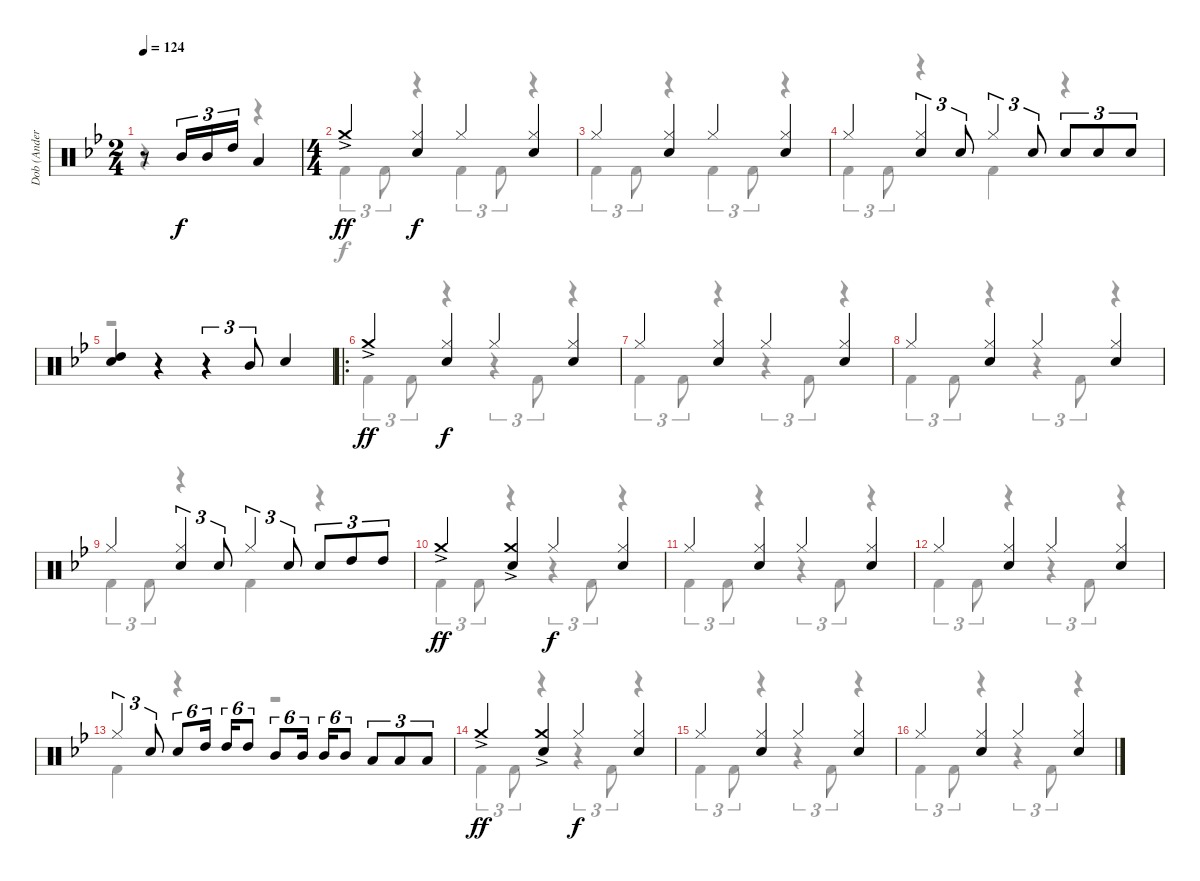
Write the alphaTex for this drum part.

\track ("Dob (Anders Johansson)" "Dob (Ander") {instrument percussion}
\staff {score}
\articulation defaults
\voice
\ts (2 4)
\tempo 124
\clef neutral
\ks bb
r.8{dy f} "Mid Tom (hit)".16{tu (3 2)} "Mid Tom (hit)".16{tu (3 2)} "High Tom (hit)".16{tu (3 2)} "Low Tom (hit)".4 |
\ts (4 4)
"Crash medium (hit)"{ac}.4{dy ff} ("Hi-Hat (closed)" "Electric Snare (hit)").4{dy f} "Hi-Hat (closed)".4 ("Hi-Hat (closed)" "Electric Snare (hit)").4 |
"Hi-Hat (closed)".4 ("Hi-Hat (closed)" "Electric Snare (hit)").4 "Hi-Hat (closed)".4 ("Hi-Hat (closed)" "Electric Snare (hit)").4 |
"Hi-Hat (closed)".4 ("Hi-Hat (closed)" "Electric Snare (hit)").4{tu (3 2)} "Electric Snare (hit)".8{tu (3 2)} "Hi-Hat (closed)".4{tu (3 2)} "Electric Snare (hit)".8{tu (3 2)} "Electric Snare (hit)".8{tu (3 2)} "Electric Snare (hit)".8{tu (3 2)} "Electric Snare (hit)".8{tu (3 2)} |
("High Tom (hit)" "Electric Snare (hit)").4 r.4 r.4{tu (3 2)} "Mid Tom (hit)".8{tu (3 2)} "Electric Snare (hit)".4 |
\ro "Crash medium (hit)"{ac}.4{dy ff}
("Hi-Hat (closed)" "Electric Snare (hit)").4{dy f} "Hi-Hat (closed)".4 ("Hi-Hat (closed)" "Electric Snare (hit)").4 |
"Hi-Hat (closed)".4 ("Hi-Hat (closed)" "Electric Snare (hit)").4 "Hi-Hat (closed)".4 ("Hi-Hat (closed)" "Electric Snare (hit)").4 |
"Hi-Hat (closed)".4 ("Hi-Hat (closed)" "Electric Snare (hit)").4 "Hi-Hat (closed)".4 ("Hi-Hat (closed)" "Electric Snare (hit)").4 |
"Hi-Hat (closed)".4 ("Hi-Hat (closed)" "Electric Snare (hit)").4{tu (3 2)} "Electric Snare (hit)".8{tu (3 2)} "Hi-Hat (closed)".4{tu (3 2)} "Electric Snare (hit)".8{tu (3 2)} "Electric Snare (hit)".8{tu (3 2)} "High Tom (hit)".8{tu (3 2)} "High Tom (hit)".8{tu (3 2)} |
"Crash medium (hit)"{ac}.4{dy ff} ("Crash medium (hit)"{ac} "Electric Snare (hit)").4 "Hi-Hat (closed)".4{dy f} ("Hi-Hat (closed)" "Electric Snare (hit)").4 |
"Hi-Hat (closed)".4 ("Hi-Hat (closed)" "Electric Snare (hit)").4 "Hi-Hat (closed)".4 ("Hi-Hat (closed)" "Electric Snare (hit)").4 |
"Hi-Hat (closed)".4 ("Hi-Hat (closed)" "Electric Snare (hit)").4 "Hi-Hat (closed)".4 ("Hi-Hat (closed)" "Electric Snare (hit)").4 |
"Hi-Hat (closed)".4{tu (3 2)} "Electric Snare (hit)".8{tu (3 2)} "Electric Snare (hit)".8{tu (6 4)} "High Tom (hit)".16{tu (6 4)} "High Tom (hit)".16{tu (6 4)} "High Tom (hit)".8{tu (6 4)} "Mid Tom (hit)".8{tu (6 4)} "Mid Tom (hit)".16{tu (6 4)} "Mid Tom (hit)".16{tu (6 4)} "Mid Tom (hit)".8{tu (6 4)} "Low Tom (hit)".8{tu (3 2)} "Low Tom (hit)".8{tu (3 2)} "Low Tom (hit)".8{tu (3 2)} |
"Crash medium (hit)"{ac}.4{dy ff} ("Crash medium (hit)"{ac} "Electric Snare (hit)").4 "Hi-Hat (closed)".4{dy f} ("Hi-Hat (closed)" "Electric Snare (hit)").4 |
"Hi-Hat (closed)".4 ("Hi-Hat (closed)" "Electric Snare (hit)").4 "Hi-Hat (closed)".4 ("Hi-Hat (closed)" "Electric Snare (hit)").4 |
"Hi-Hat (closed)".4 ("Hi-Hat (closed)" "Electric Snare (hit)").4 "Hi-Hat (closed)".4 ("Hi-Hat (closed)" "Electric Snare (hit)").4
\voice
\clef neutral
\ottava regular
\simile none
\ks bb
r.4{dy f} r.4 |
"Kick (hit) 2".4{tu (3 2)} "Kick (hit) 2".8{tu (3 2)} r.4 "Kick (hit) 2".4{tu (3 2)} "Kick (hit) 2".8{tu (3 2)} r.4 |
"Kick (hit) 2".4{tu (3 2)} "Kick (hit) 2".8{tu (3 2)} r.4 "Kick (hit) 2".4{tu (3 2)} "Kick (hit) 2".8{tu (3 2)} r.4 |
"Kick (hit) 2".4{tu (3 2)} "Kick (hit) 2".8{tu (3 2)} r.4 "Kick (hit) 2".4 r.4 |
r.1 |
"Kick (hit) 2".4{tu (3 2)} "Kick (hit) 2".8{tu (3 2)} r.4 r.4{tu (3 2)} "Kick (hit) 2".8{tu (3 2)} r.4 |
"Kick (hit) 2".4{tu (3 2)} "Kick (hit) 2".8{tu (3 2)} r.4 r.4{tu (3 2)} "Kick (hit) 2".8{tu (3 2)} r.4 |
"Kick (hit) 2".4{tu (3 2)} "Kick (hit) 2".8{tu (3 2)} r.4 r.4{tu (3 2)} "Kick (hit) 2".8{tu (3 2)} r.4 |
"Kick (hit) 2".4{tu (3 2)} "Kick (hit) 2".8{tu (3 2)} r.4 "Kick (hit) 2".4 r.4 |
"Kick (hit) 2".4{tu (3 2)} "Kick (hit) 2".8{tu (3 2)} r.4 r.4{tu (3 2)} "Kick (hit) 2".8{tu (3 2)} r.4 |
"Kick (hit) 2".4{tu (3 2)} "Kick (hit) 2".8{tu (3 2)} r.4 r.4{tu (3 2)} "Kick (hit) 2".8{tu (3 2)} r.4 |
"Kick (hit) 2".4{tu (3 2)} "Kick (hit) 2".8{tu (3 2)} r.4 r.4{tu (3 2)} "Kick (hit) 2".8{tu (3 2)} r.4 |
"Kick (hit) 2".4 r.4 r.2 |
"Kick (hit) 2".4{tu (3 2)} "Kick (hit) 2".8{tu (3 2)} r.4 r.4{tu (3 2)} "Kick (hit) 2".8{tu (3 2)} r.4 |
"Kick (hit) 2".4{tu (3 2)} "Kick (hit) 2".8{tu (3 2)} r.4 r.4{tu (3 2)} "Kick (hit) 2".8{tu (3 2)} r.4 |
"Kick (hit) 2".4{tu (3 2)} "Kick (hit) 2".8{tu (3 2)} r.4 r.4{tu (3 2)} "Kick (hit) 2".8{tu (3 2)} r.4
